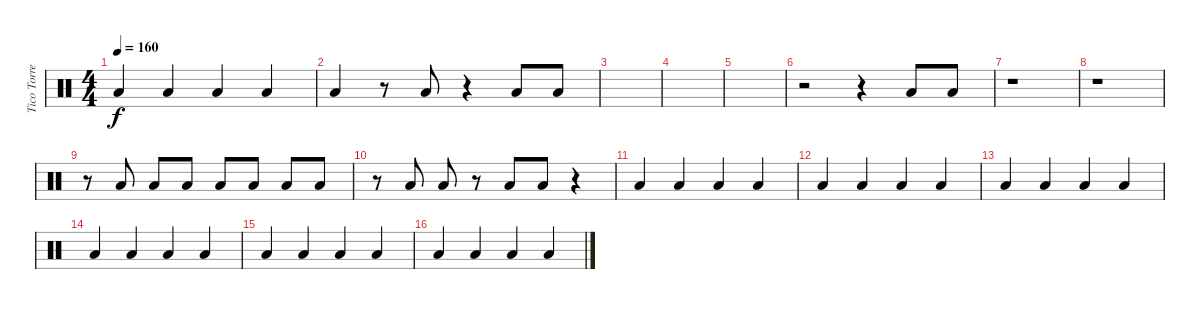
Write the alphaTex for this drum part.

\track ("Tico Torres" "Tico Torre") {instrument percussion}
\staff {score}
\articulation defaults
\ts (4 4)
\tempo 160
\clef neutral
\ks c "Low Floor Tom (hit)".4{dy f} "Low Floor Tom (hit)".4 "Low Floor Tom (hit)".4 "Low Floor Tom (hit)".4
|
"Low Floor Tom (hit)".4 r.8 "Low Floor Tom (hit)".8 r.4 "Low Floor Tom (hit)".8 "Low Floor Tom (hit)".8 |
|
|
|
r.2 r.4 "Low Floor Tom (hit)".8 "Low Floor Tom (hit)".8 |
r.1 |
r.1 |
r.8 "Low Floor Tom (hit)".8 "Low Floor Tom (hit)".8 "Low Floor Tom (hit)".8 "Low Floor Tom (hit)".8 "Low Floor Tom (hit)".8 "Low Floor Tom (hit)".8 "Low Floor Tom (hit)".8 |
r.8 "Low Floor Tom (hit)".8 "Low Floor Tom (hit)".8 r.8 "Low Floor Tom (hit)".8 "Low Floor Tom (hit)".8 r.4 |
"Low Floor Tom (hit)".4 "Low Floor Tom (hit)".4 "Low Floor Tom (hit)".4 "Low Floor Tom (hit)".4 |
"Low Floor Tom (hit)".4 "Low Floor Tom (hit)".4 "Low Floor Tom (hit)".4 "Low Floor Tom (hit)".4 |
"Low Floor Tom (hit)".4 "Low Floor Tom (hit)".4 "Low Floor Tom (hit)".4 "Low Floor Tom (hit)".4 |
"Low Floor Tom (hit)".4 "Low Floor Tom (hit)".4 "Low Floor Tom (hit)".4 "Low Floor Tom (hit)".4 |
"Low Floor Tom (hit)".4 "Low Floor Tom (hit)".4 "Low Floor Tom (hit)".4 "Low Floor Tom (hit)".4 |
"Low Floor Tom (hit)".4 "Low Floor Tom (hit)".4 "Low Floor Tom (hit)".4 "Low Floor Tom (hit)".4
